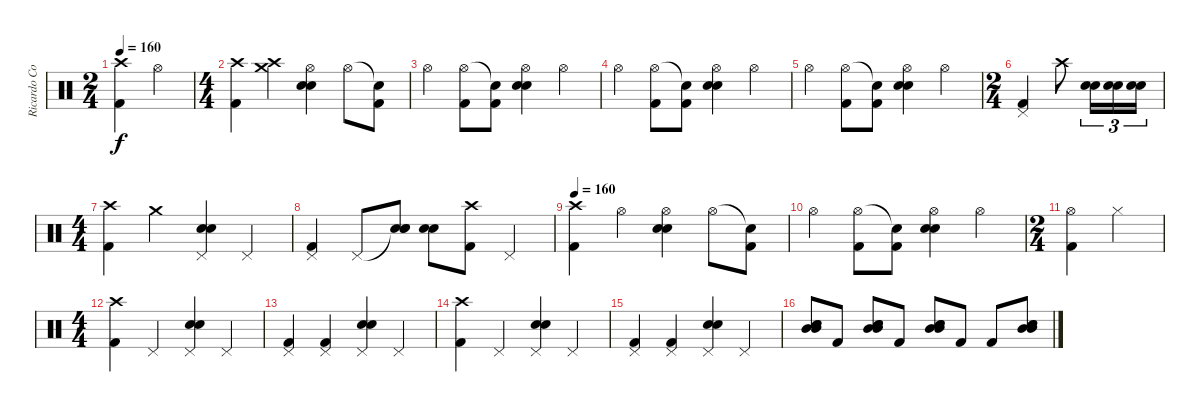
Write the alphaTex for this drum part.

\track ("Ricardo Confessori" "Ricardo Co") {instrument percussion}
\staff {score}
\articulation defaults
\ts (2 4)
\tempo 160
\clef neutral
\ks c
("Crash high (hit)" "Kick (hit) 2").4{dy f} "Hi-Hat (open)".4 |
\ts (4 4)
("Crash high (hit)" "Kick (hit) 2").4 ("Crash high (hit)" "Crash medium (hit)").4 ("Hi-Hat (open)" "Electric Snare (hit)" "Snare (hit) 2").4 "Hi-Hat (open)".8 ("Snare (hit)"{t} "Kick (hit) 2").8 |
"Hi-Hat (open)".4 ("Hi-Hat (open)" "Kick (hit) 2").8 ("Snare (hit)"{t} "Kick (hit) 2").8 ("Hi-Hat (open)" "Electric Snare (hit)" "Snare (hit) 2").4 "Hi-Hat (open)".4 |
"Hi-Hat (open)".4 ("Hi-Hat (open)" "Kick (hit) 2").8 ("Snare (hit)"{t} "Kick (hit) 2").8 ("Hi-Hat (open)" "Electric Snare (hit)" "Snare (hit) 2").4 "Hi-Hat (open)".4 |
"Hi-Hat (open)".4 ("Hi-Hat (open)" "Kick (hit) 2").8 ("Snare (hit)"{t} "Kick (hit) 2").8 ("Hi-Hat (open)" "Electric Snare (hit)" "Snare (hit) 2").4 "Hi-Hat (open)".4 |
\ts (2 4)
("Pedal Hi-Hat (hit)" "Kick (hit) 2").4 "Crash high (hit)".8 ("Snare (hit) 2" "Electric Snare (hit)").16{tu (3 2)} ("Snare (hit) 2" "Electric Snare (hit)").16{tu (3 2)} ("Snare (hit) 2" "Electric Snare (hit)").16{tu (3 2)} |
\ts (4 4)
("Crash high (hit)" "Kick (hit) 2").4 "Crash medium (hit)".4 ("Pedal Hi-Hat (hit)" "Electric Snare (hit)" "Snare (hit) 2").4 "Pedal Hi-Hat (hit)".4 |
("Pedal Hi-Hat (hit)" "Kick (hit) 2").4 "Pedal Hi-Hat (hit)".8 ("Snare (hit)"{t} "Electric Snare (hit)" "Snare (hit) 2").8 ("Electric Snare (hit)" "Snare (hit) 2").8 ("Crash high (hit)" "Kick (hit) 2").8 "Pedal Hi-Hat (hit)".4 |
\tempo 160
("Crash high (hit)" "Kick (hit) 2").4 "Hi-Hat (open)".4 ("Hi-Hat (open)" "Electric Snare (hit)" "Snare (hit) 2").4 "Hi-Hat (open)".8 ("Snare (hit)"{t} "Kick (hit) 2").8 |
"Hi-Hat (open)".4 ("Hi-Hat (open)" "Kick (hit) 2").8 ("Snare (hit)"{t} "Kick (hit) 2").8 ("Hi-Hat (open)" "Electric Snare (hit)" "Snare (hit) 2").4 "Hi-Hat (open)".4 |
\ts (2 4)
("Hi-Hat (open)" "Kick (hit) 2").4 "Hi-Hat (closed)".4 |
\ts (4 4)
("Crash high (hit)" "Kick (hit) 2").4 "Pedal Hi-Hat (hit)".4 ("Pedal Hi-Hat (hit)" "Electric Snare (hit)" "Snare (hit) 2").4 "Pedal Hi-Hat (hit)".4 |
("Pedal Hi-Hat (hit)" "Kick (hit) 2").4 ("Pedal Hi-Hat (hit)" "Kick (hit) 2").4 ("Pedal Hi-Hat (hit)" "Electric Snare (hit)" "Snare (hit) 2").4 "Pedal Hi-Hat (hit)".4 |
("Crash high (hit)" "Kick (hit) 2").4 "Pedal Hi-Hat (hit)".4 ("Pedal Hi-Hat (hit)" "Electric Snare (hit)" "Snare (hit) 2").4 "Pedal Hi-Hat (hit)".4 |
("Pedal Hi-Hat (hit)" "Kick (hit) 2").4 ("Pedal Hi-Hat (hit)" "Kick (hit) 2").4 ("Pedal Hi-Hat (hit)" "Electric Snare (hit)" "Snare (hit) 2").4 "Pedal Hi-Hat (hit)".4 |
("Electric Snare (hit)" "Snare (hit) 2" "Mid Tom (hit)" "Mid Tom (hit)").8 "Kick (hit) 2".8 ("Electric Snare (hit)" "Snare (hit) 2" "Mid Tom (hit)" "Mid Tom (hit)").8 "Kick (hit) 2".8 ("Electric Snare (hit)" "Snare (hit) 2" "Mid Tom (hit)" "Mid Tom (hit)").8 "Kick (hit) 2".8 "Kick (hit) 2".8 ("Electric Snare (hit)" "Snare (hit) 2" "Mid Tom (hit)" "Mid Tom (hit)").8
